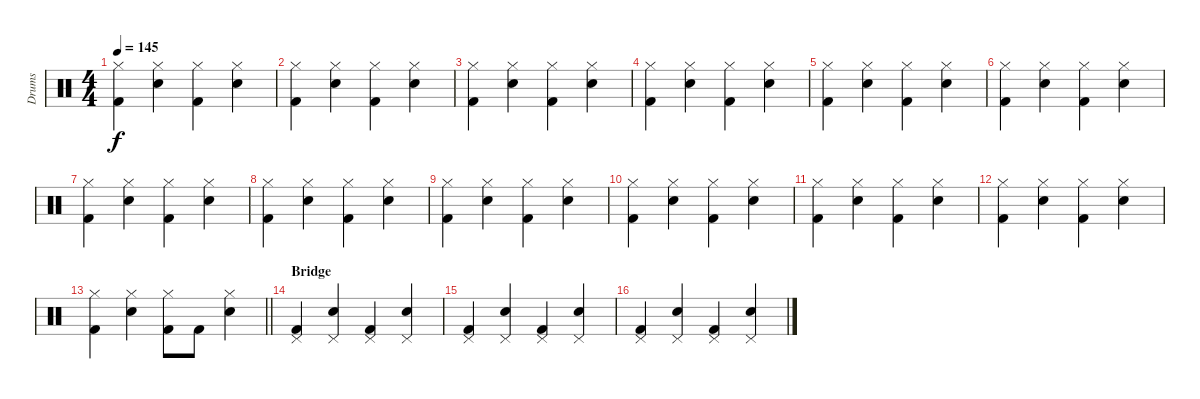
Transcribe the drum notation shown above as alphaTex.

\track ("Drums" "Drums") {instrument percussion}
\staff {score}
\articulation defaults
\ts (4 4)
\tempo 145
\clef neutral
\ks c
("Kick (hit) 2" "Hi-Hat (closed)").4{dy f} ("Electric Snare (hit)" "Hi-Hat (closed)").4 ("Kick (hit) 2" "Hi-Hat (closed)").4 ("Electric Snare (hit)" "Hi-Hat (closed)").4 |
("Kick (hit) 2" "Hi-Hat (closed)").4 ("Electric Snare (hit)" "Hi-Hat (closed)").4 ("Kick (hit) 2" "Hi-Hat (closed)").4 ("Electric Snare (hit)" "Hi-Hat (closed)").4 |
("Kick (hit) 2" "Hi-Hat (closed)").4 ("Electric Snare (hit)" "Hi-Hat (closed)").4 ("Kick (hit) 2" "Hi-Hat (closed)").4 ("Electric Snare (hit)" "Hi-Hat (closed)").4 |
("Kick (hit) 2" "Hi-Hat (closed)").4 ("Electric Snare (hit)" "Hi-Hat (closed)").4 ("Kick (hit) 2" "Hi-Hat (closed)").4 ("Electric Snare (hit)" "Hi-Hat (closed)").4 |
("Kick (hit) 2" "Hi-Hat (closed)").4 ("Electric Snare (hit)" "Hi-Hat (closed)").4 ("Kick (hit) 2" "Hi-Hat (closed)").4 ("Electric Snare (hit)" "Hi-Hat (closed)").4 |
("Kick (hit) 2" "Hi-Hat (closed)").4 ("Electric Snare (hit)" "Hi-Hat (closed)").4 ("Kick (hit) 2" "Hi-Hat (closed)").4 ("Electric Snare (hit)" "Hi-Hat (closed)").4 |
("Kick (hit) 2" "Hi-Hat (closed)").4 ("Electric Snare (hit)" "Hi-Hat (closed)").4 ("Kick (hit) 2" "Hi-Hat (closed)").4 ("Electric Snare (hit)" "Hi-Hat (closed)").4 |
("Kick (hit) 2" "Hi-Hat (closed)").4 ("Electric Snare (hit)" "Hi-Hat (closed)").4 ("Kick (hit) 2" "Hi-Hat (closed)").4 ("Electric Snare (hit)" "Hi-Hat (closed)").4 |
("Kick (hit) 2" "Hi-Hat (closed)").4 ("Electric Snare (hit)" "Hi-Hat (closed)").4 ("Kick (hit) 2" "Hi-Hat (closed)").4 ("Electric Snare (hit)" "Hi-Hat (closed)").4 |
("Kick (hit) 2" "Hi-Hat (closed)").4 ("Electric Snare (hit)" "Hi-Hat (closed)").4 ("Kick (hit) 2" "Hi-Hat (closed)").4 ("Electric Snare (hit)" "Hi-Hat (closed)").4 |
("Kick (hit) 2" "Hi-Hat (closed)").4 ("Electric Snare (hit)" "Hi-Hat (closed)").4 ("Kick (hit) 2" "Hi-Hat (closed)").4 ("Electric Snare (hit)" "Hi-Hat (closed)").4 |
("Kick (hit) 2" "Hi-Hat (closed)").4 ("Electric Snare (hit)" "Hi-Hat (closed)").4 ("Kick (hit) 2" "Hi-Hat (closed)").4 ("Electric Snare (hit)" "Hi-Hat (closed)").4 |
\barLineRight lightlight
("Kick (hit) 2" "Hi-Hat (closed)").4 ("Electric Snare (hit)" "Hi-Hat (closed)").4 ("Kick (hit) 2" "Hi-Hat (closed)").8 "Kick (hit) 2".8 ("Electric Snare (hit)" "Hi-Hat (closed)").4 |
\section ("" "Bridge")
("Kick (hit) 2" "Pedal Hi-Hat (hit)").4 ("Electric Snare (hit)" "Pedal Hi-Hat (hit)").4 ("Kick (hit) 2" "Pedal Hi-Hat (hit)").4 ("Electric Snare (hit)" "Pedal Hi-Hat (hit)").4 |
("Kick (hit) 2" "Pedal Hi-Hat (hit)").4 ("Electric Snare (hit)" "Pedal Hi-Hat (hit)").4 ("Kick (hit) 2" "Pedal Hi-Hat (hit)").4 ("Electric Snare (hit)" "Pedal Hi-Hat (hit)").4 |
("Kick (hit) 2" "Pedal Hi-Hat (hit)").4 ("Electric Snare (hit)" "Pedal Hi-Hat (hit)").4 ("Kick (hit) 2" "Pedal Hi-Hat (hit)").4 ("Electric Snare (hit)" "Pedal Hi-Hat (hit)").4
